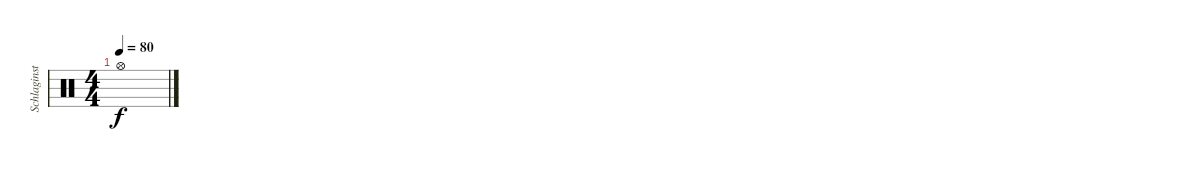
\track ("Schlaginstrumente - Auswahl" "Schlaginst") {instrument percussion}
\staff {score}
\articulation defaults
\ts (4 4)
\tempo 80
\clef neutral
\ks c "Hi-Hat (open)".1{dy f}
